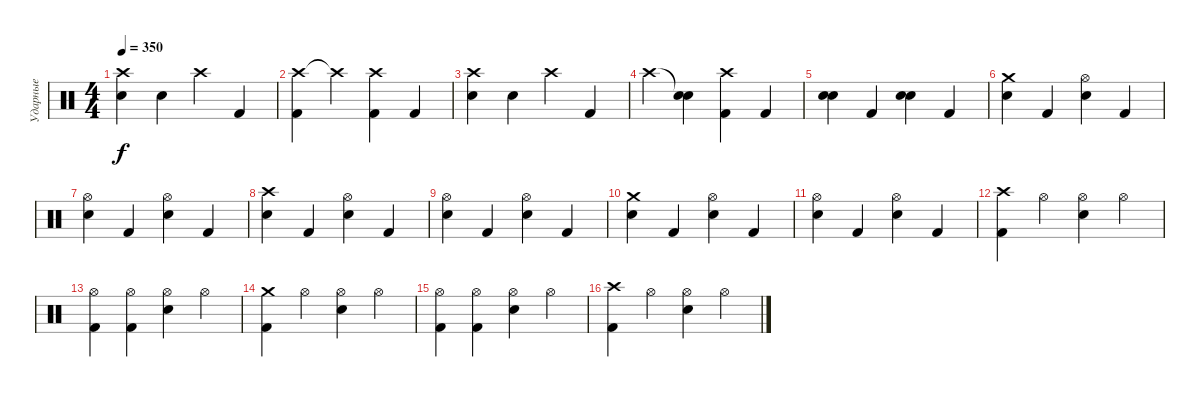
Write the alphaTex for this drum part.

\track ("Ударные" "Ударные") {instrument percussion}
\staff {score}
\articulation defaults
\ts (4 4)
\tempo 350
\clef neutral
\ks c
("Crash high (hit)" "Electric Snare (hit)").4{dy f} "Electric Snare (hit)".4 "Crash high (hit)".4 "Kick (hit) 2".4 |
("Crash high (hit)" "Kick (hit) 2").4 "Crash high (hit)"{t}.4 ("Crash high (hit)" "Kick (hit) 2").4 "Kick (hit) 2".4 |
("Crash high (hit)" "Electric Snare (hit)").4 "Electric Snare (hit)".4 "Crash high (hit)".4 "Kick (hit) 2".4 |
"Crash high (hit)".4 ("Snare (hit)"{t} "Electric Snare (hit)").4 ("Crash high (hit)" "Kick (hit) 2").4 "Kick (hit) 2".4 |
("Electric Snare (hit)" "Electric Snare (hit)").4 "Kick (hit) 2".4 ("Electric Snare (hit)" "Electric Snare (hit)").4 "Kick (hit) 2".4 |
("Crash medium (hit)" "Electric Snare (hit)").4 "Kick (hit) 2".4 ("Hi-Hat (open)" "Electric Snare (hit)").4 "Kick (hit) 2".4 |
("Hi-Hat (open)" "Electric Snare (hit)").4 "Kick (hit) 2".4 ("Hi-Hat (open)" "Electric Snare (hit)").4 "Kick (hit) 2".4 |
("Crash high (hit)" "Electric Snare (hit)").4 "Kick (hit) 2".4 ("Hi-Hat (open)" "Electric Snare (hit)").4 "Kick (hit) 2".4 |
("Hi-Hat (open)" "Electric Snare (hit)").4 "Kick (hit) 2".4 ("Hi-Hat (open)" "Electric Snare (hit)").4 "Kick (hit) 2".4 |
("Crash medium (hit)" "Electric Snare (hit)").4 "Kick (hit) 2".4 ("Hi-Hat (open)" "Electric Snare (hit)").4 "Kick (hit) 2".4 |
("Hi-Hat (open)" "Electric Snare (hit)").4 "Kick (hit) 2".4 ("Hi-Hat (open)" "Electric Snare (hit)").4 "Kick (hit) 2".4 |
("Crash high (hit)" "Kick (hit) 2").4 "Hi-Hat (open)".4 ("Hi-Hat (open)" "Electric Snare (hit)").4 "Hi-Hat (open)".4 |
("Hi-Hat (open)" "Kick (hit) 2").4 ("Hi-Hat (open)" "Kick (hit) 2").4 ("Hi-Hat (open)" "Electric Snare (hit)").4 "Hi-Hat (open)".4 |
("Crash medium (hit)" "Kick (hit) 2").4 "Hi-Hat (open)".4 ("Hi-Hat (open)" "Electric Snare (hit)").4 "Hi-Hat (open)".4 |
("Hi-Hat (open)" "Kick (hit) 2").4 ("Hi-Hat (open)" "Kick (hit) 2").4 ("Hi-Hat (open)" "Electric Snare (hit)").4 "Hi-Hat (open)".4 |
("Crash high (hit)" "Kick (hit) 2").4 "Hi-Hat (open)".4 ("Hi-Hat (open)" "Electric Snare (hit)").4 "Hi-Hat (open)".4
